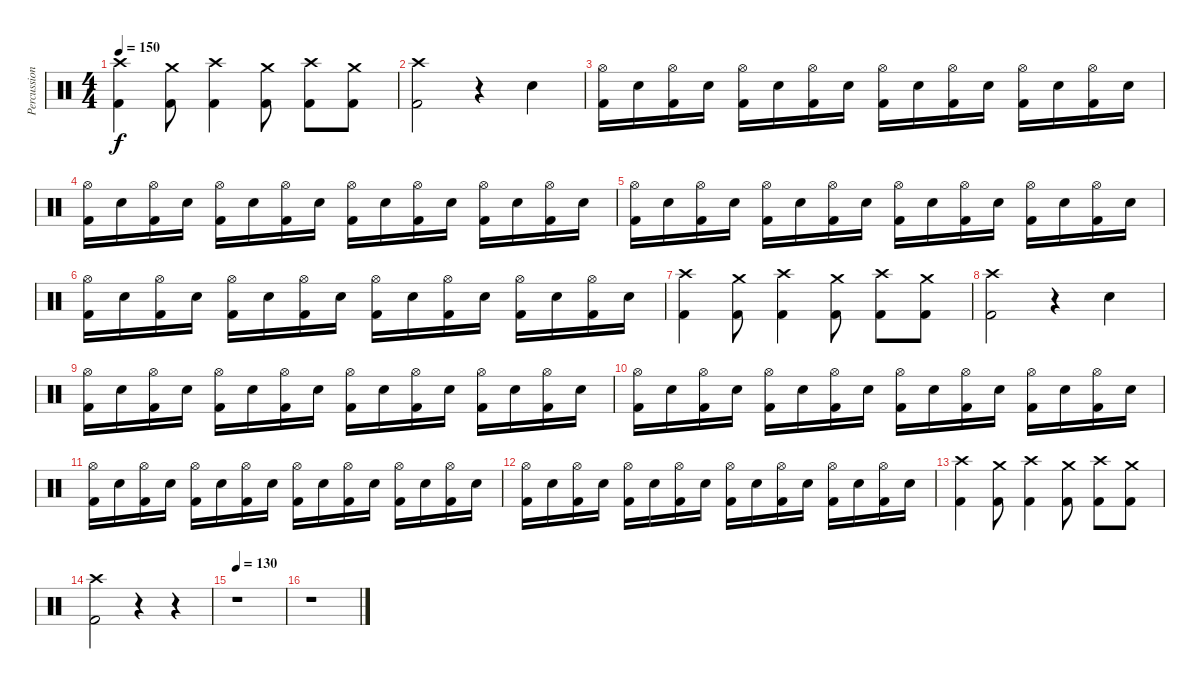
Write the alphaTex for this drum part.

\track ("Percussions" "Percussion") {instrument percussion}
\staff {score}
\articulation defaults
\ts (4 4)
\tempo 150
\clef neutral
\ks c
("Kick (hit) 2" "Crash high (hit)").4{dy f} ("Kick (hit) 2" "Crash medium (hit)").8 ("Kick (hit) 2" "Crash high (hit)").4 ("Kick (hit) 2" "Crash medium (hit)").8 ("Kick (hit) 2" "Crash high (hit)").8 ("Kick (hit) 2" "Crash medium (hit)").8 |
("Kick (hit) 2" "Crash high (hit)").2 r.4 "Electric Snare (hit)".4 |
("Kick (hit) 2" "Hi-Hat (open)").16 "Electric Snare (hit)".16 ("Kick (hit) 2" "Hi-Hat (open)").16 "Electric Snare (hit)".16 ("Kick (hit) 2" "Hi-Hat (open)").16 "Electric Snare (hit)".16 ("Kick (hit) 2" "Hi-Hat (open)").16 "Electric Snare (hit)".16 ("Kick (hit) 2" "Hi-Hat (open)").16 "Electric Snare (hit)".16 ("Kick (hit) 2" "Hi-Hat (open)").16 "Electric Snare (hit)".16 ("Kick (hit) 2" "Hi-Hat (open)").16 "Electric Snare (hit)".16 ("Kick (hit) 2" "Hi-Hat (open)").16 "Electric Snare (hit)".16 |
("Kick (hit) 2" "Hi-Hat (open)").16 "Electric Snare (hit)".16 ("Kick (hit) 2" "Hi-Hat (open)").16 "Electric Snare (hit)".16 ("Kick (hit) 2" "Hi-Hat (open)").16 "Electric Snare (hit)".16 ("Kick (hit) 2" "Hi-Hat (open)").16 "Electric Snare (hit)".16 ("Kick (hit) 2" "Hi-Hat (open)").16 "Electric Snare (hit)".16 ("Kick (hit) 2" "Hi-Hat (open)").16 "Electric Snare (hit)".16 ("Kick (hit) 2" "Hi-Hat (open)").16 "Electric Snare (hit)".16 ("Kick (hit) 2" "Hi-Hat (open)").16 "Electric Snare (hit)".16 |
("Kick (hit) 2" "Hi-Hat (open)").16 "Electric Snare (hit)".16 ("Kick (hit) 2" "Hi-Hat (open)").16 "Electric Snare (hit)".16 ("Kick (hit) 2" "Hi-Hat (open)").16 "Electric Snare (hit)".16 ("Kick (hit) 2" "Hi-Hat (open)").16 "Electric Snare (hit)".16 ("Kick (hit) 2" "Hi-Hat (open)").16 "Electric Snare (hit)".16 ("Kick (hit) 2" "Hi-Hat (open)").16 "Electric Snare (hit)".16 ("Kick (hit) 2" "Hi-Hat (open)").16 "Electric Snare (hit)".16 ("Kick (hit) 2" "Hi-Hat (open)").16 "Electric Snare (hit)".16 |
("Kick (hit) 2" "Hi-Hat (open)").16 "Electric Snare (hit)".16 ("Kick (hit) 2" "Hi-Hat (open)").16 "Electric Snare (hit)".16 ("Kick (hit) 2" "Hi-Hat (open)").16 "Electric Snare (hit)".16 ("Kick (hit) 2" "Hi-Hat (open)").16 "Electric Snare (hit)".16 ("Kick (hit) 2" "Hi-Hat (open)").16 "Electric Snare (hit)".16 ("Kick (hit) 2" "Hi-Hat (open)").16 "Electric Snare (hit)".16 ("Kick (hit) 2" "Hi-Hat (open)").16 "Electric Snare (hit)".16 ("Kick (hit) 2" "Hi-Hat (open)").16 "Electric Snare (hit)".16 |
("Kick (hit) 2" "Crash high (hit)").4 ("Kick (hit) 2" "Crash medium (hit)").8 ("Kick (hit) 2" "Crash high (hit)").4 ("Kick (hit) 2" "Crash medium (hit)").8 ("Kick (hit) 2" "Crash high (hit)").8 ("Kick (hit) 2" "Crash medium (hit)").8 |
("Kick (hit) 2" "Crash high (hit)").2 r.4 "Electric Snare (hit)".4 |
("Kick (hit) 2" "Hi-Hat (open)").16 "Electric Snare (hit)".16 ("Kick (hit) 2" "Hi-Hat (open)").16 "Electric Snare (hit)".16 ("Kick (hit) 2" "Hi-Hat (open)").16 "Electric Snare (hit)".16 ("Kick (hit) 2" "Hi-Hat (open)").16 "Electric Snare (hit)".16 ("Kick (hit) 2" "Hi-Hat (open)").16 "Electric Snare (hit)".16 ("Kick (hit) 2" "Hi-Hat (open)").16 "Electric Snare (hit)".16 ("Kick (hit) 2" "Hi-Hat (open)").16 "Electric Snare (hit)".16 ("Kick (hit) 2" "Hi-Hat (open)").16 "Electric Snare (hit)".16 |
("Kick (hit) 2" "Hi-Hat (open)").16 "Electric Snare (hit)".16 ("Kick (hit) 2" "Hi-Hat (open)").16 "Electric Snare (hit)".16 ("Kick (hit) 2" "Hi-Hat (open)").16 "Electric Snare (hit)".16 ("Kick (hit) 2" "Hi-Hat (open)").16 "Electric Snare (hit)".16 ("Kick (hit) 2" "Hi-Hat (open)").16 "Electric Snare (hit)".16 ("Kick (hit) 2" "Hi-Hat (open)").16 "Electric Snare (hit)".16 ("Kick (hit) 2" "Hi-Hat (open)").16 "Electric Snare (hit)".16 ("Kick (hit) 2" "Hi-Hat (open)").16 "Electric Snare (hit)".16 |
("Kick (hit) 2" "Hi-Hat (open)").16 "Electric Snare (hit)".16 ("Kick (hit) 2" "Hi-Hat (open)").16 "Electric Snare (hit)".16 ("Kick (hit) 2" "Hi-Hat (open)").16 "Electric Snare (hit)".16 ("Kick (hit) 2" "Hi-Hat (open)").16 "Electric Snare (hit)".16 ("Kick (hit) 2" "Hi-Hat (open)").16 "Electric Snare (hit)".16 ("Kick (hit) 2" "Hi-Hat (open)").16 "Electric Snare (hit)".16 ("Kick (hit) 2" "Hi-Hat (open)").16 "Electric Snare (hit)".16 ("Kick (hit) 2" "Hi-Hat (open)").16 "Electric Snare (hit)".16 |
("Kick (hit) 2" "Hi-Hat (open)").16 "Electric Snare (hit)".16 ("Kick (hit) 2" "Hi-Hat (open)").16 "Electric Snare (hit)".16 ("Kick (hit) 2" "Hi-Hat (open)").16 "Electric Snare (hit)".16 ("Kick (hit) 2" "Hi-Hat (open)").16 "Electric Snare (hit)".16 ("Kick (hit) 2" "Hi-Hat (open)").16 "Electric Snare (hit)".16 ("Kick (hit) 2" "Hi-Hat (open)").16 "Electric Snare (hit)".16 ("Kick (hit) 2" "Hi-Hat (open)").16 "Electric Snare (hit)".16 ("Kick (hit) 2" "Hi-Hat (open)").16 "Electric Snare (hit)".16 |
("Kick (hit) 2" "Crash high (hit)").4 ("Kick (hit) 2" "Crash medium (hit)").8 ("Kick (hit) 2" "Crash high (hit)").4 ("Kick (hit) 2" "Crash medium (hit)").8 ("Kick (hit) 2" "Crash high (hit)").8 ("Kick (hit) 2" "Crash medium (hit)").8 |
("Kick (hit) 2" "Crash high (hit)").2 r.4 r.4 |
\tempo 130
r.1 |
r.1{volume 0}
